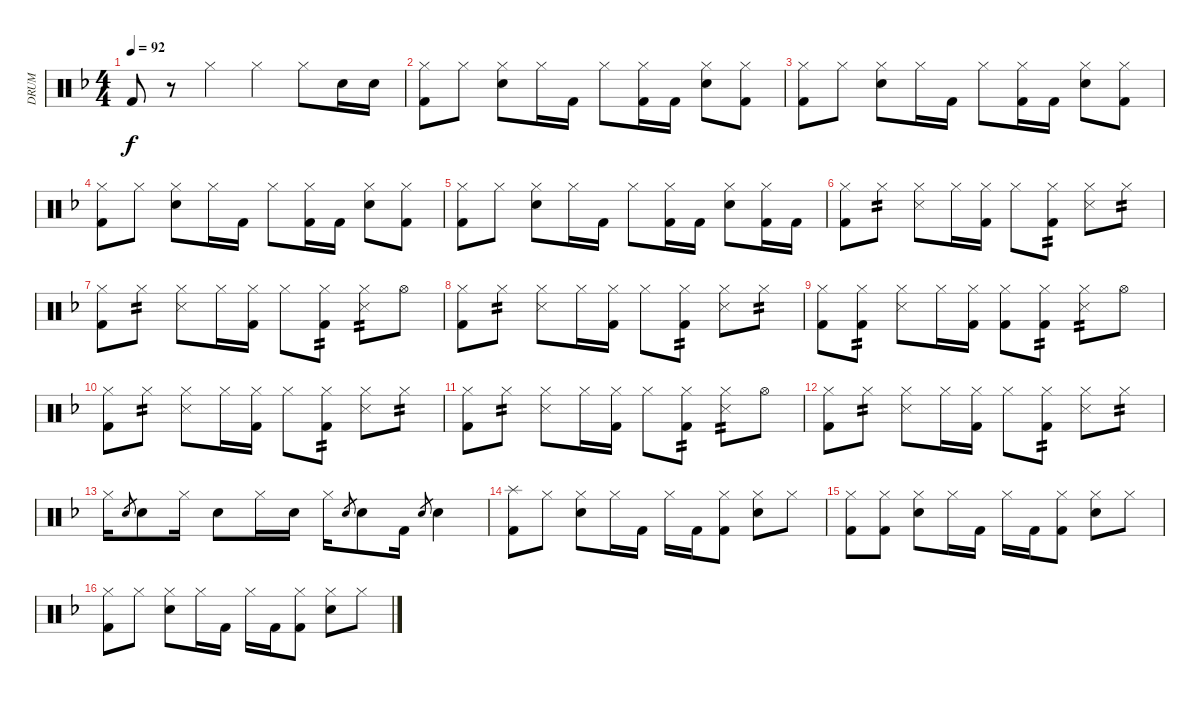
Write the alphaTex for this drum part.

\track ("DRUM" "DRUM") {instrument percussion}
\staff {score}
\articulation defaults
\ts (4 4)
\tempo 92
\clef neutral
\ks f "Kick (hit) 2".8{dy f}
r.8 "Hi-Hat (closed)".4 "Hi-Hat (closed)".4 "Hi-Hat (closed)".8 "Electric Snare (hit)".16 "Electric Snare (hit)".16 |
("Hi-Hat (closed)" "Kick (hit) 2").8 "Hi-Hat (closed)".8 ("Hi-Hat (closed)" "Electric Snare (hit)").8 "Hi-Hat (closed)".16 "Kick (hit) 2".16 "Hi-Hat (closed)".8 ("Hi-Hat (closed)" "Kick (hit) 2").16 "Kick (hit) 2".16 ("Hi-Hat (closed)" "Electric Snare (hit)").8 ("Hi-Hat (closed)" "Kick (hit) 2").8 |
("Hi-Hat (closed)" "Kick (hit) 2").8 "Hi-Hat (closed)".8 ("Hi-Hat (closed)" "Electric Snare (hit)").8 "Hi-Hat (closed)".16 "Kick (hit) 2".16 "Hi-Hat (closed)".8 ("Hi-Hat (closed)" "Kick (hit) 2").16 "Kick (hit) 2".16 ("Hi-Hat (closed)" "Electric Snare (hit)").8 ("Hi-Hat (closed)" "Kick (hit) 2").8 |
("Hi-Hat (closed)" "Kick (hit) 2").8 "Hi-Hat (closed)".8 ("Hi-Hat (closed)" "Electric Snare (hit)").8 "Hi-Hat (closed)".16 "Kick (hit) 2".16 "Hi-Hat (closed)".8 ("Hi-Hat (closed)" "Kick (hit) 2").16 "Kick (hit) 2".16 ("Hi-Hat (closed)" "Electric Snare (hit)").8 ("Hi-Hat (closed)" "Kick (hit) 2").8 |
("Hi-Hat (closed)" "Kick (hit) 2").8 "Hi-Hat (closed)".8 ("Hi-Hat (closed)" "Electric Snare (hit)").8 "Hi-Hat (closed)".16 "Kick (hit) 2".16 "Hi-Hat (closed)".8 ("Hi-Hat (closed)" "Kick (hit) 2").16 "Kick (hit) 2".16 ("Hi-Hat (closed)" "Electric Snare (hit)").8 ("Hi-Hat (closed)" "Kick (hit) 2").16 "Kick (hit) 2".16 |
("Hi-Hat (closed)" "Kick (hit) 2").8 "Hi-Hat (closed)".8{tp 2} ("Hi-Hat (closed)" "Snare (side stick) 3").8 "Hi-Hat (closed)".16 ("Hi-Hat (closed)" "Kick (hit) 2").16 "Hi-Hat (closed)".8 ("Hi-Hat (closed)" "Kick (hit) 2").8{tp 2} ("Hi-Hat (closed)" "Snare (side stick) 3").8 "Hi-Hat (closed)".8{tp 2} |
("Hi-Hat (closed)" "Kick (hit) 2").8 "Hi-Hat (closed)".8{tp 2} ("Hi-Hat (closed)" "Snare (side stick) 3").8 "Hi-Hat (closed)".16 ("Hi-Hat (closed)" "Kick (hit) 2").16 "Hi-Hat (closed)".8 ("Hi-Hat (closed)" "Kick (hit) 2").8{tp 2} ("Hi-Hat (closed)" "Snare (side stick) 3").8{tp 2} "Hi-Hat (open)".8 |
("Hi-Hat (closed)" "Kick (hit) 2").8 "Hi-Hat (closed)".8{tp 2} ("Hi-Hat (closed)" "Snare (side stick) 3").8 "Hi-Hat (closed)".16 ("Hi-Hat (closed)" "Kick (hit) 2").16 "Hi-Hat (closed)".8 ("Hi-Hat (closed)" "Kick (hit) 2").8{tp 2} ("Hi-Hat (closed)" "Snare (side stick) 3").8 "Hi-Hat (closed)".8{tp 2} |
("Hi-Hat (closed)" "Kick (hit) 2").8 ("Hi-Hat (closed)" "Kick (hit) 2").8{tp 2} ("Hi-Hat (closed)" "Snare (side stick) 3").8 "Hi-Hat (closed)".16 ("Hi-Hat (closed)" "Kick (hit) 2").16 ("Hi-Hat (closed)" "Kick (hit) 2").8 ("Hi-Hat (closed)" "Kick (hit) 2").8{tp 2} ("Hi-Hat (closed)" "Snare (side stick) 3").8{tp 2} "Hi-Hat (open)".8 |
("Hi-Hat (closed)" "Kick (hit) 2").8 "Hi-Hat (closed)".8{tp 2} ("Hi-Hat (closed)" "Snare (side stick) 3").8 "Hi-Hat (closed)".16 ("Hi-Hat (closed)" "Kick (hit) 2").16 "Hi-Hat (closed)".8 ("Hi-Hat (closed)" "Kick (hit) 2").8{tp 2} ("Hi-Hat (closed)" "Snare (side stick) 3").8 "Hi-Hat (closed)".8{tp 2} |
("Hi-Hat (closed)" "Kick (hit) 2").8 "Hi-Hat (closed)".8{tp 2} ("Hi-Hat (closed)" "Snare (side stick) 3").8 "Hi-Hat (closed)".16 ("Hi-Hat (closed)" "Kick (hit) 2").16 "Hi-Hat (closed)".8 ("Hi-Hat (closed)" "Kick (hit) 2").8{tp 2} ("Hi-Hat (closed)" "Snare (side stick) 3").8{tp 2} "Hi-Hat (open)".8 |
("Hi-Hat (closed)" "Kick (hit) 2").8 "Hi-Hat (closed)".8{tp 2} ("Hi-Hat (closed)" "Snare (side stick) 3").8 "Hi-Hat (closed)".16 ("Hi-Hat (closed)" "Kick (hit) 2").16 "Hi-Hat (closed)".8 ("Hi-Hat (closed)" "Kick (hit) 2").8{tp 2} ("Hi-Hat (closed)" "Snare (side stick) 3").8 "Hi-Hat (closed)".8{tp 2} |
"Hi-Hat (closed)".16 "Electric Snare (hit)".8{gr} "Electric Snare (hit)".8 "Hi-Hat (closed)".16 "Electric Snare (hit)".8 "Hi-Hat (closed)".16 "Electric Snare (hit)".16 "Hi-Hat (closed)".16 "Electric Snare (hit)".8{gr} "Electric Snare (hit)".8 "Kick (hit) 2".16 "Electric Snare (hit)".8{gr} "Electric Snare (hit)".4 |
("Splash (hit)" "Kick (hit) 2").8 "Hi-Hat (closed)".8 ("Hi-Hat (closed)" "Electric Snare (hit)").8 "Hi-Hat (closed)".16 "Kick (hit) 2".16 "Hi-Hat (closed)".16 "Kick (hit) 2".16 ("Hi-Hat (closed)" "Kick (hit) 2").8 ("Hi-Hat (closed)" "Electric Snare (hit)").8 "Hi-Hat (closed)".8 |
("Hi-Hat (closed)" "Kick (hit) 2").8 ("Hi-Hat (closed)" "Kick (hit) 2").8 ("Hi-Hat (closed)" "Electric Snare (hit)").8 "Hi-Hat (closed)".16 "Kick (hit) 2".16 "Hi-Hat (closed)".16 "Kick (hit) 2".16 ("Hi-Hat (closed)" "Kick (hit) 2").8 ("Hi-Hat (closed)" "Electric Snare (hit)").8 "Hi-Hat (closed)".8 |
("Hi-Hat (closed)" "Kick (hit) 2").8 "Hi-Hat (closed)".8 ("Hi-Hat (closed)" "Electric Snare (hit)").8 "Hi-Hat (closed)".16 "Kick (hit) 2".16 "Hi-Hat (closed)".16 "Kick (hit) 2".16 ("Hi-Hat (closed)" "Kick (hit) 2").8 ("Hi-Hat (closed)" "Electric Snare (hit)").8 "Hi-Hat (closed)".8
